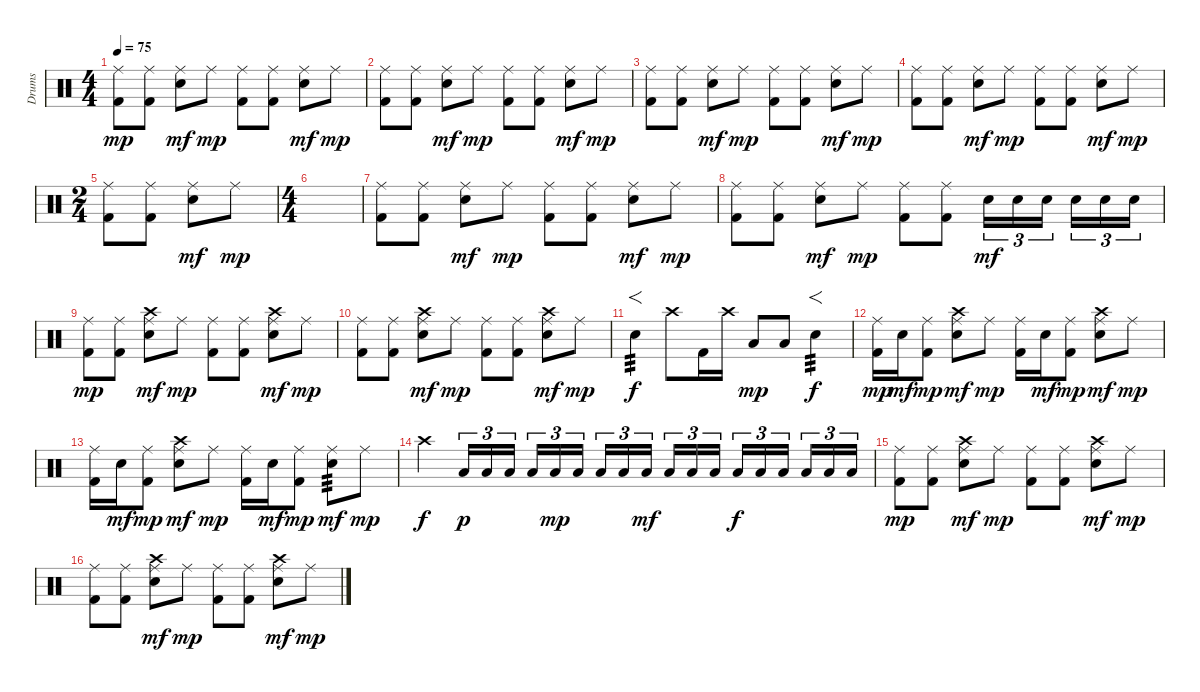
\track ("Drums" "Drums") {instrument percussion}
\staff {score}
\articulation defaults
\ts (4 4)
\tempo 75
\clef neutral
\ks c
("Ride (middle)" "Kick (hit) 2").8{dy mp} ("Ride (middle)" "Kick (hit) 2").8 ("Ride (middle)" "Electric Snare (hit)").8{dy mf} "Ride (middle)".8{dy mp} ("Ride (middle)" "Kick (hit) 2").8 ("Ride (middle)" "Kick (hit) 2").8 ("Ride (middle)" "Electric Snare (hit)").8{dy mf} "Ride (middle)".8{dy mp} |
("Ride (middle)" "Kick (hit) 2").8 ("Ride (middle)" "Kick (hit) 2").8 ("Ride (middle)" "Electric Snare (hit)").8{dy mf} "Ride (middle)".8{dy mp} ("Ride (middle)" "Kick (hit) 2").8 ("Ride (middle)" "Kick (hit) 2").8 ("Ride (middle)" "Electric Snare (hit)").8{dy mf} "Ride (middle)".8{dy mp} |
("Ride (middle)" "Kick (hit) 2").8 ("Ride (middle)" "Kick (hit) 2").8 ("Ride (middle)" "Electric Snare (hit)").8{dy mf} "Ride (middle)".8{dy mp} ("Ride (middle)" "Kick (hit) 2").8 ("Ride (middle)" "Kick (hit) 2").8 ("Ride (middle)" "Electric Snare (hit)").8{dy mf} "Ride (middle)".8{dy mp} |
("Ride (middle)" "Kick (hit) 2").8 ("Ride (middle)" "Kick (hit) 2").8 ("Ride (middle)" "Electric Snare (hit)").8{dy mf} "Ride (middle)".8{dy mp} ("Ride (middle)" "Kick (hit) 2").8 ("Ride (middle)" "Kick (hit) 2").8 ("Ride (middle)" "Electric Snare (hit)").8{dy mf} "Ride (middle)".8{dy mp} |
\ts (2 4)
("Ride (middle)" "Kick (hit) 2").8 ("Ride (middle)" "Kick (hit) 2").8 ("Ride (middle)" "Electric Snare (hit)").8{dy mf} "Ride (middle)".8{dy mp} |
\ts (4 4)
|
("Ride (middle)" "Kick (hit) 2").8 ("Ride (middle)" "Kick (hit) 2").8 ("Ride (middle)" "Electric Snare (hit)").8{dy mf} "Ride (middle)".8{dy mp} ("Ride (middle)" "Kick (hit) 2").8 ("Ride (middle)" "Kick (hit) 2").8 ("Ride (middle)" "Electric Snare (hit)").8{dy mf} "Ride (middle)".8{dy mp} |
("Ride (middle)" "Kick (hit) 2").8 ("Ride (middle)" "Kick (hit) 2").8 ("Ride (middle)" "Electric Snare (hit)").8{dy mf} "Ride (middle)".8{dy mp} ("Ride (middle)" "Kick (hit) 2").8 ("Ride (middle)" "Kick (hit) 2").8 "Electric Snare (hit)".16{tu (3 2) dy mf} "Electric Snare (hit)".16{tu (3 2)} "Electric Snare (hit)".16{tu (3 2) beam splitsecondary} "Electric Snare (hit)".16{tu (3 2)} "Electric Snare (hit)".16{tu (3 2)} "Electric Snare (hit)".16{tu (3 2)} |
("Ride (middle)" "Kick (hit) 2").8{dy mp} ("Ride (middle)" "Kick (hit) 2").8 ("Crash high (hit)" "Ride (middle)" "Electric Snare (hit)").8{dy mf} "Ride (middle)".8{dy mp} ("Ride (middle)" "Kick (hit) 2").8 ("Ride (middle)" "Kick (hit) 2").8 ("Crash high (hit)" "Ride (middle)" "Electric Snare (hit)").8{dy mf} "Ride (middle)".8{dy mp} |
("Ride (middle)" "Kick (hit) 2").8 ("Ride (middle)" "Kick (hit) 2").8 ("Crash high (hit)" "Ride (middle)" "Electric Snare (hit)").8{dy mf} "Ride (middle)".8{dy mp} ("Ride (middle)" "Kick (hit) 2").8 ("Ride (middle)" "Kick (hit) 2").8 ("Crash high (hit)" "Ride (middle)" "Electric Snare (hit)").8{dy mf} "Ride (middle)".8{dy mp} |
"Electric Snare (hit)".4{f tp 3 dy f} "Crash high (hit)".8 "Kick (hit) 2".16 "Crash high (hit)".16 "Low Tom (hit)".8{dy mp} "Low Tom (hit)".8 "Electric Snare (hit)".4{f tp 3 dy f} |
("Ride (middle)" "Kick (hit) 2").16{dy mp} "Electric Snare (hit)".16{dy mf} ("Ride (middle)" "Kick (hit) 2").8{dy mp} ("Crash high (hit)" "Ride (middle)" "Electric Snare (hit)").8{dy mf} "Ride (middle)".8{dy mp} ("Ride (middle)" "Kick (hit) 2").16 "Electric Snare (hit)".16{dy mf} ("Ride (middle)" "Kick (hit) 2").8{dy mp} ("Crash high (hit)" "Ride (middle)" "Electric Snare (hit)").8{dy mf} "Ride (middle)".8{dy mp} |
("Ride (middle)" "Kick (hit) 2").16 "Electric Snare (hit)".16{dy mf} ("Ride (middle)" "Kick (hit) 2").8{dy mp} ("Crash high (hit)" "Ride (middle)" "Electric Snare (hit)").8{dy mf} "Ride (middle)".8{dy mp} ("Ride (middle)" "Kick (hit) 2").16 "Electric Snare (hit)".16{dy mf} ("Ride (middle)" "Kick (hit) 2").8{dy mp} ("Ride (middle)" "Electric Snare (hit)").8{tp 3 dy mf} "Ride (middle)".8{dy mp} |
"Crash high (hit)".4{dy f} "Low Tom (hit)".16{tu (3 2) dy p} "Low Tom (hit)".16{tu (3 2)} "Low Tom (hit)".16{tu (3 2) beam splitsecondary} "Low Tom (hit)".16{tu (3 2)} "Low Tom (hit)".16{tu (3 2) dy mp} "Low Tom (hit)".16{tu (3 2)} "Low Tom (hit)".16{tu (3 2)} "Low Tom (hit)".16{tu (3 2)} "Low Tom (hit)".16{tu (3 2) dy mf beam splitsecondary} "Low Tom (hit)".16{tu (3 2)} "Low Tom (hit)".16{tu (3 2)} "Low Tom (hit)".16{tu (3 2)} "Low Tom (hit)".16{tu (3 2) dy f} "Low Tom (hit)".16{tu (3 2)} "Low Tom (hit)".16{tu (3 2) beam splitsecondary} "Low Tom (hit)".16{tu (3 2)} "Low Tom (hit)".16{tu (3 2)} "Low Tom (hit)".16{tu (3 2)} |
("Ride (middle)" "Kick (hit) 2").8{dy mp} ("Ride (middle)" "Kick (hit) 2").8 ("Crash high (hit)" "Ride (middle)" "Electric Snare (hit)").8{dy mf} "Ride (middle)".8{dy mp} ("Ride (middle)" "Kick (hit) 2").8 ("Ride (middle)" "Kick (hit) 2").8 ("Crash high (hit)" "Ride (middle)" "Electric Snare (hit)").8{dy mf} "Ride (middle)".8{dy mp} |
("Ride (middle)" "Kick (hit) 2").8 ("Ride (middle)" "Kick (hit) 2").8 ("Crash high (hit)" "Ride (middle)" "Electric Snare (hit)").8{dy mf} "Ride (middle)".8{dy mp} ("Ride (middle)" "Kick (hit) 2").8 ("Ride (middle)" "Kick (hit) 2").8 ("Crash high (hit)" "Ride (middle)" "Electric Snare (hit)").8{dy mf} "Ride (middle)".8{dy mp}
